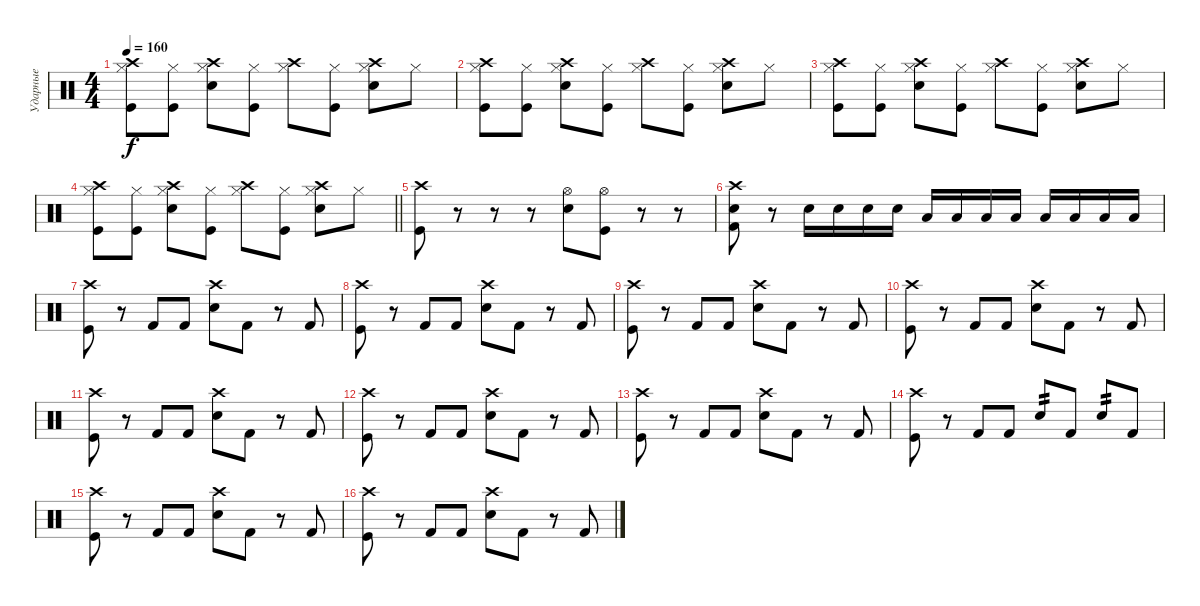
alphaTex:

\track ("Ударные" "Ударные") {instrument percussion}
\staff {score}
\articulation defaults
\ts (4 4)
\tempo 160
\clef neutral
\ks c
("Kick (hit)" "Hi-Hat (closed)" "Crash high (hit)").8{dy f} ("Kick (hit)" "Hi-Hat (closed)").8 ("Hi-Hat (closed)" "Snare (hit) 2" "Crash high (hit)").8 ("Kick (hit)" "Hi-Hat (closed)").8 ("Hi-Hat (closed)" "Crash high (hit)").8 ("Kick (hit)" "Hi-Hat (closed)").8 ("Hi-Hat (closed)" "Snare (hit) 2" "Crash high (hit)").8 "Hi-Hat (closed)".8 |
("Kick (hit)" "Hi-Hat (closed)" "Crash high (hit)").8 ("Kick (hit)" "Hi-Hat (closed)").8 ("Hi-Hat (closed)" "Snare (hit) 2" "Crash high (hit)").8 ("Kick (hit)" "Hi-Hat (closed)").8 ("Hi-Hat (closed)" "Crash high (hit)").8 ("Kick (hit)" "Hi-Hat (closed)").8 ("Hi-Hat (closed)" "Snare (hit) 2" "Crash high (hit)").8 "Hi-Hat (closed)".8 |
("Kick (hit)" "Hi-Hat (closed)" "Crash high (hit)").8 ("Kick (hit)" "Hi-Hat (closed)").8 ("Hi-Hat (closed)" "Snare (hit) 2" "Crash high (hit)").8 ("Kick (hit)" "Hi-Hat (closed)").8 ("Hi-Hat (closed)" "Crash high (hit)").8 ("Kick (hit)" "Hi-Hat (closed)").8 ("Hi-Hat (closed)" "Snare (hit) 2" "Crash high (hit)").8 "Hi-Hat (closed)".8 |
\barLineRight lightlight
("Kick (hit)" "Hi-Hat (closed)" "Crash high (hit)").8 ("Kick (hit)" "Hi-Hat (closed)").8 ("Hi-Hat (closed)" "Snare (hit) 2" "Crash high (hit)").8 ("Kick (hit)" "Hi-Hat (closed)").8 ("Hi-Hat (closed)" "Crash high (hit)").8 ("Kick (hit)" "Hi-Hat (closed)").8 ("Hi-Hat (closed)" "Snare (hit) 2" "Crash high (hit)").8 "Hi-Hat (closed)".8 |
("Kick (hit)" "Crash high (hit)").8 r.8 r.8 r.8 ("Snare (hit) 2" "Hi-Hat (open)").8 ("Kick (hit)" "Hi-Hat (open)").8 r.8 r.8 |
("Snare (hit) 2" "Kick (hit) 2" "Crash high (hit)").8 r.8 "Snare (hit) 2".16 "Snare (hit) 2".16 "Snare (hit) 2".16 "Snare (hit) 2".16 "Low Tom (hit)".16 "Low Tom (hit)".16 "Low Tom (hit)".16 "Low Tom (hit)".16 "Low Floor Tom (hit)".16 "Low Floor Tom (hit)".16 "Low Floor Tom (hit)".16 "Low Floor Tom (hit)".16 |
("Kick (hit)" "Crash high (hit)").8 r.8 "Kick (hit) 2".8 "Kick (hit) 2".8 ("Snare (hit) 2" "Crash high (hit)").8 "Kick (hit) 2".8 r.8 "Kick (hit) 2".8 |
("Kick (hit)" "Crash high (hit)").8 r.8 "Kick (hit) 2".8 "Kick (hit) 2".8 ("Snare (hit) 2" "Crash high (hit)").8 "Kick (hit) 2".8 r.8 "Kick (hit) 2".8 |
("Kick (hit)" "Crash high (hit)").8 r.8 "Kick (hit) 2".8 "Kick (hit) 2".8 ("Snare (hit) 2" "Crash high (hit)").8 "Kick (hit) 2".8 r.8 "Kick (hit) 2".8 |
("Kick (hit)" "Crash high (hit)").8 r.8 "Kick (hit) 2".8 "Kick (hit) 2".8 ("Snare (hit) 2" "Crash high (hit)").8 "Kick (hit) 2".8 r.8 "Kick (hit) 2".8 |
("Kick (hit)" "Crash high (hit)").8 r.8 "Kick (hit) 2".8 "Kick (hit) 2".8 ("Snare (hit) 2" "Crash high (hit)").8 "Kick (hit) 2".8 r.8 "Kick (hit) 2".8 |
("Kick (hit)" "Crash high (hit)").8 r.8 "Kick (hit) 2".8 "Kick (hit) 2".8 ("Snare (hit) 2" "Crash high (hit)").8 "Kick (hit) 2".8 r.8 "Kick (hit) 2".8 |
("Kick (hit)" "Crash high (hit)").8 r.8 "Kick (hit) 2".8 "Kick (hit) 2".8 ("Snare (hit) 2" "Crash high (hit)").8 "Kick (hit) 2".8 r.8 "Kick (hit) 2".8 |
("Kick (hit)" "Crash high (hit)").8 r.8 "Kick (hit) 2".8 "Kick (hit) 2".8 "Snare (hit) 2".8{tp 2} "Kick (hit) 2".8 "Snare (hit) 2".8{tp 2} "Kick (hit) 2".8 |
("Kick (hit)" "Crash high (hit)").8 r.8 "Kick (hit) 2".8 "Kick (hit) 2".8 ("Snare (hit) 2" "Crash high (hit)").8 "Kick (hit) 2".8 r.8 "Kick (hit) 2".8 |
("Kick (hit)" "Crash high (hit)").8 r.8 "Kick (hit) 2".8 "Kick (hit) 2".8 ("Snare (hit) 2" "Crash high (hit)").8 "Kick (hit) 2".8 r.8 "Kick (hit) 2".8
